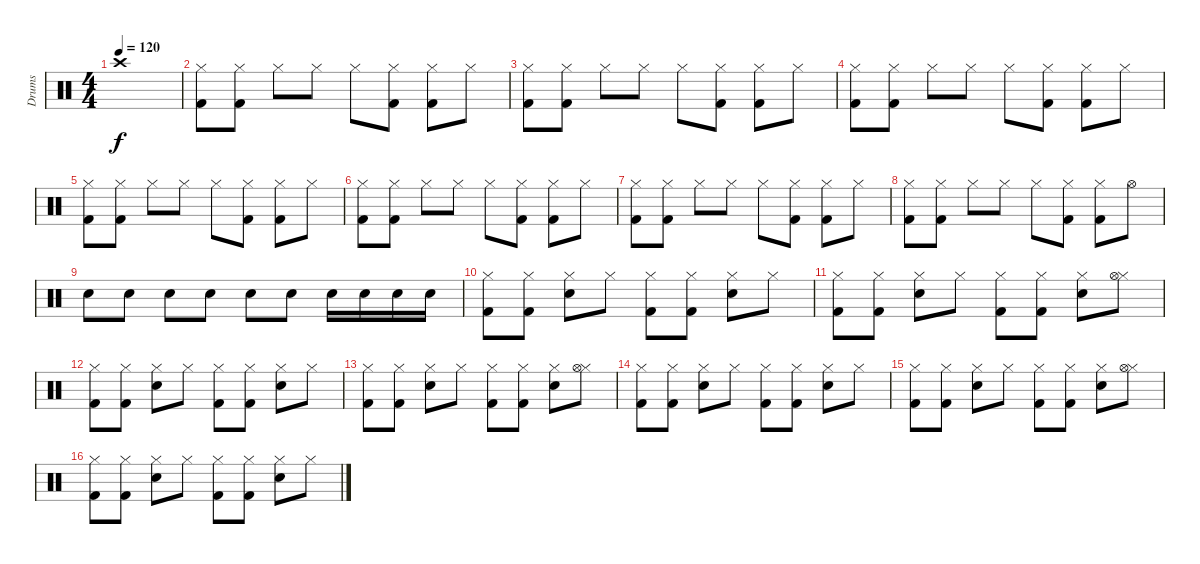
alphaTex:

\track ("Drums" "Drums") {instrument percussion}
\staff {score}
\articulation defaults
\ts (4 4)
\tempo 120
\clef neutral
\ks c "Crash high (hit)"{t}.1{dy f}
|
("Hi-Hat (closed)" "Kick (hit) 2").8 ("Hi-Hat (closed)" "Kick (hit) 2").8 "Hi-Hat (closed)".8 "Hi-Hat (closed)".8 "Hi-Hat (closed)".8 ("Hi-Hat (closed)" "Kick (hit) 2").8 ("Hi-Hat (closed)" "Kick (hit) 2").8 "Hi-Hat (closed)".8 |
("Hi-Hat (closed)" "Kick (hit) 2").8 ("Hi-Hat (closed)" "Kick (hit) 2").8 "Hi-Hat (closed)".8 "Hi-Hat (closed)".8 "Hi-Hat (closed)".8 ("Hi-Hat (closed)" "Kick (hit) 2").8 ("Hi-Hat (closed)" "Kick (hit) 2").8 "Hi-Hat (closed)".8 |
("Hi-Hat (closed)" "Kick (hit) 2").8 ("Hi-Hat (closed)" "Kick (hit) 2").8 "Hi-Hat (closed)".8 "Hi-Hat (closed)".8 "Hi-Hat (closed)".8 ("Hi-Hat (closed)" "Kick (hit) 2").8 ("Hi-Hat (closed)" "Kick (hit) 2").8 "Hi-Hat (closed)".8 |
("Hi-Hat (closed)" "Kick (hit) 2").8 ("Hi-Hat (closed)" "Kick (hit) 2").8 "Hi-Hat (closed)".8 "Hi-Hat (closed)".8 "Hi-Hat (closed)".8 ("Hi-Hat (closed)" "Kick (hit) 2").8 ("Hi-Hat (closed)" "Kick (hit) 2").8 "Hi-Hat (closed)".8 |
("Hi-Hat (closed)" "Kick (hit) 2").8 ("Hi-Hat (closed)" "Kick (hit) 2").8 "Hi-Hat (closed)".8 "Hi-Hat (closed)".8 "Hi-Hat (closed)".8 ("Hi-Hat (closed)" "Kick (hit) 2").8 ("Hi-Hat (closed)" "Kick (hit) 2").8 "Hi-Hat (closed)".8 |
("Hi-Hat (closed)" "Kick (hit) 2").8 ("Hi-Hat (closed)" "Kick (hit) 2").8 "Hi-Hat (closed)".8 "Hi-Hat (closed)".8 "Hi-Hat (closed)".8 ("Hi-Hat (closed)" "Kick (hit) 2").8 ("Hi-Hat (closed)" "Kick (hit) 2").8 "Hi-Hat (closed)".8 |
("Hi-Hat (closed)" "Kick (hit) 2").8 ("Hi-Hat (closed)" "Kick (hit) 2").8 "Hi-Hat (closed)".8 "Hi-Hat (closed)".8 "Hi-Hat (closed)".8 ("Hi-Hat (closed)" "Kick (hit) 2").8 ("Hi-Hat (closed)" "Kick (hit) 2").8 "Hi-Hat (open)".8 |
"Snare (hit) 2".8 "Snare (hit) 2".8 "Snare (hit) 2".8 "Snare (hit) 2".8 "Snare (hit) 2".8 "Snare (hit) 2".8 "Snare (hit) 2".16 "Snare (hit) 2".16 "Snare (hit) 2".16 "Snare (hit) 2".16 |
("Hi-Hat (closed)" "Kick (hit) 2").8 ("Hi-Hat (closed)" "Kick (hit) 2").8 ("Hi-Hat (closed)" "Snare (hit) 2").8 "Hi-Hat (closed)".8 ("Hi-Hat (closed)" "Kick (hit) 2").8 ("Hi-Hat (closed)" "Kick (hit) 2").8 ("Hi-Hat (closed)" "Snare (hit) 2").8 "Hi-Hat (closed)".8 |
("Hi-Hat (closed)" "Kick (hit) 2").8 ("Hi-Hat (closed)" "Kick (hit) 2").8 ("Hi-Hat (closed)" "Snare (hit) 2").8 "Hi-Hat (closed)".8 ("Hi-Hat (closed)" "Kick (hit) 2").8 ("Hi-Hat (closed)" "Kick (hit) 2").8 ("Hi-Hat (closed)" "Snare (hit) 2").8 ("Hi-Hat (closed)" "Hi-Hat (open)").8 |
("Hi-Hat (closed)" "Kick (hit) 2").8 ("Hi-Hat (closed)" "Kick (hit) 2").8 ("Hi-Hat (closed)" "Snare (hit) 2").8 "Hi-Hat (closed)".8 ("Hi-Hat (closed)" "Kick (hit) 2").8 ("Hi-Hat (closed)" "Kick (hit) 2").8 ("Hi-Hat (closed)" "Snare (hit) 2").8 "Hi-Hat (closed)".8 |
("Hi-Hat (closed)" "Kick (hit) 2").8 ("Hi-Hat (closed)" "Kick (hit) 2").8 ("Hi-Hat (closed)" "Snare (hit) 2").8 "Hi-Hat (closed)".8 ("Hi-Hat (closed)" "Kick (hit) 2").8 ("Hi-Hat (closed)" "Kick (hit) 2").8 ("Hi-Hat (closed)" "Snare (hit) 2").8 ("Hi-Hat (closed)" "Hi-Hat (open)").8 |
("Hi-Hat (closed)" "Kick (hit) 2").8 ("Hi-Hat (closed)" "Kick (hit) 2").8 ("Hi-Hat (closed)" "Snare (hit) 2").8 "Hi-Hat (closed)".8 ("Hi-Hat (closed)" "Kick (hit) 2").8 ("Hi-Hat (closed)" "Kick (hit) 2").8 ("Hi-Hat (closed)" "Snare (hit) 2").8 "Hi-Hat (closed)".8 |
("Hi-Hat (closed)" "Kick (hit) 2").8 ("Hi-Hat (closed)" "Kick (hit) 2").8 ("Hi-Hat (closed)" "Snare (hit) 2").8 "Hi-Hat (closed)".8 ("Hi-Hat (closed)" "Kick (hit) 2").8 ("Hi-Hat (closed)" "Kick (hit) 2").8 ("Hi-Hat (closed)" "Snare (hit) 2").8 ("Hi-Hat (closed)" "Hi-Hat (open)").8 |
("Hi-Hat (closed)" "Kick (hit) 2").8 ("Hi-Hat (closed)" "Kick (hit) 2").8 ("Hi-Hat (closed)" "Snare (hit) 2").8 "Hi-Hat (closed)".8 ("Hi-Hat (closed)" "Kick (hit) 2").8 ("Hi-Hat (closed)" "Kick (hit) 2").8 ("Hi-Hat (closed)" "Snare (hit) 2").8 "Hi-Hat (closed)".8
